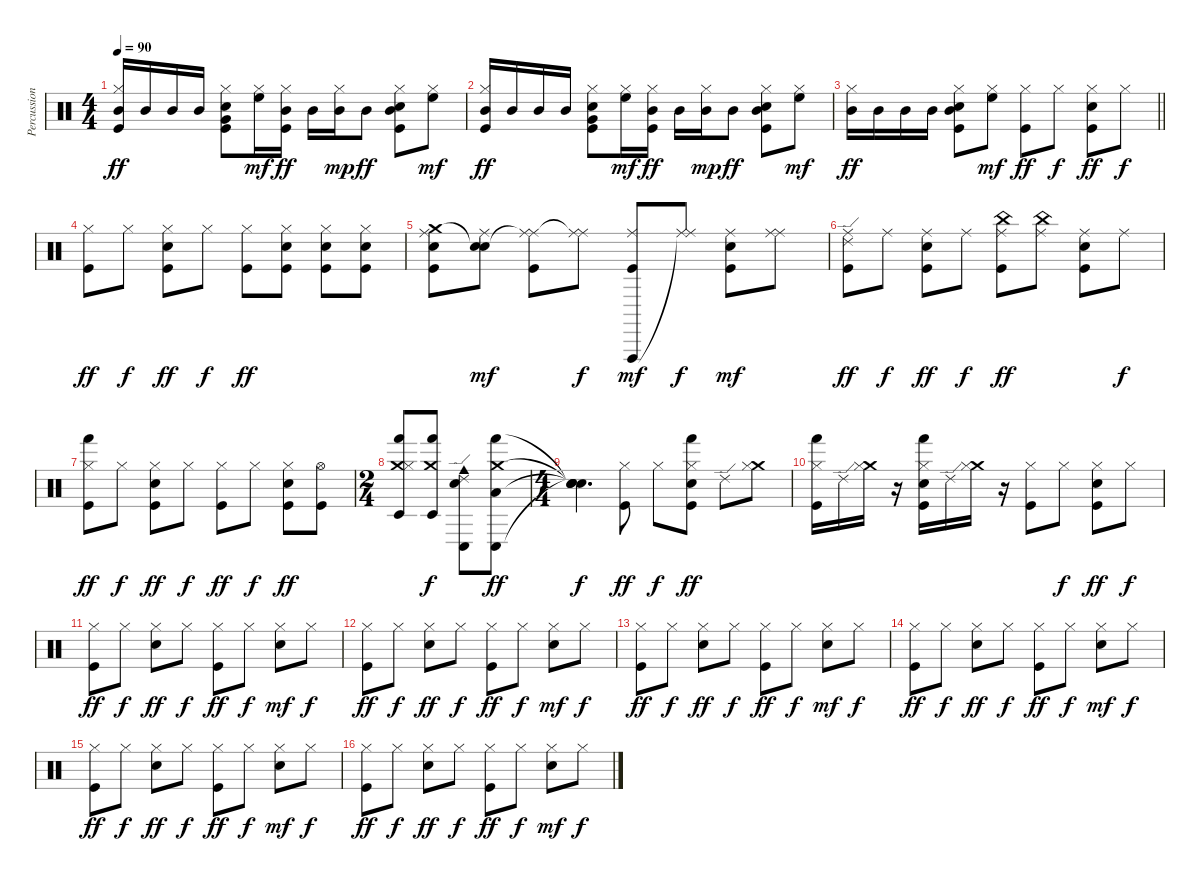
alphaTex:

\track ("Percussion" "Percussion") {instrument percussion}
\staff {score}
\articulation defaults
\ts (4 4)
\tempo 90
\clef neutral
\ks c
("Mid Tom (hit)" "Hi-Hat (closed)" "Kick (hit)").16{dy ff} "Mid Tom (hit)".16 "Mid Tom (hit)".16 "Mid Tom (hit)".16 ("Very Low Tom (hit)" "Hi-Hat (closed)" "Snare (hit) 2" "Kick (hit)").8 ("High Floor Tom (hit)" "Hi-Hat (closed)").16{dy mf} ("Mid Tom (hit)" "Hi-Hat (closed)" "Kick (hit)").16{dy ff} "Mid Tom (hit)".16 ("Mid Tom (hit)" "Hi-Hat (closed)").16{dy mp} "Mid Tom (hit)".8{dy ff} ("Mid Tom (hit)" "Hi-Hat (closed)" "Snare (hit) 2" "Kick (hit)").8 ("High Floor Tom (hit)" "Hi-Hat (closed)").8{dy mf} |
("Mid Tom (hit)" "Hi-Hat (closed)" "Kick (hit)").16{dy ff} "Mid Tom (hit)".16 "Mid Tom (hit)".16 "Mid Tom (hit)".16 ("Very Low Tom (hit)" "Hi-Hat (closed)" "Snare (hit) 2" "Kick (hit)").8 ("High Floor Tom (hit)" "Hi-Hat (closed)").16{dy mf} ("Mid Tom (hit)" "Hi-Hat (closed)" "Kick (hit)").16{dy ff} "Mid Tom (hit)".16 ("Mid Tom (hit)" "Hi-Hat (closed)").16{dy mp} "Mid Tom (hit)".8{dy ff} ("Mid Tom (hit)" "Hi-Hat (closed)" "Snare (hit) 2" "Kick (hit)").8 ("High Floor Tom (hit)" "Hi-Hat (closed)").8{dy mf} |
\barLineRight lightlight
("Mid Tom (hit)" "Hi-Hat (closed)").16{dy ff} "Mid Tom (hit)".16 "Mid Tom (hit)".16 "Mid Tom (hit)".16 ("Mid Tom (hit)" "Hi-Hat (closed)" "Snare (hit) 2" "Kick (hit)").8 ("High Floor Tom (hit)" "Hi-Hat (closed)").8{dy mf} ("Hi-Hat (closed)" "Kick (hit)").8{dy ff} "Hi-Hat (closed)".8{dy f} ("Hi-Hat (closed)" "Snare (hit) 2" "Kick (hit)").8{dy ff} "Hi-Hat (closed)".8{dy f} |
("Hi-Hat (closed)" "Kick (hit)").8{dy ff} "Hi-Hat (closed)".8{dy f} ("Hi-Hat (closed)" "Snare (hit) 2" "Kick (hit)").8{dy ff} "Hi-Hat (closed)".8{dy f} ("Hi-Hat (closed)" "Kick (hit)").8{dy ff} ("Hi-Hat (closed)" "Snare (hit) 2" "Kick (hit)").8 ("Hi-Hat (closed)" "Snare (hit) 2" "Kick (hit)").8 ("Hi-Hat (closed)" "Snare (hit) 2" "Kick (hit)").8 |
("Crash medium (hit)" "Ride (middle)" "Snare (hit) 2" "Kick (hit)").8 ("Hand Clap (hit)"{t} "Ride (middle)" "Hand Clap (hit)").8{dy mf} ("Ride (middle)"{t} "Ride (middle)" "Kick (hit)").8 ("Ride (middle)"{t} "Ride (middle)").8{dy f} ("Vibraslap (hit)" "Ride (middle)" "Kick (hit)").8{dy mf} ("Ride (middle)"{t} "Ride (middle)").8{dy f} ("Ride (middle)" "Snare (hit) 2" "Kick (hit)").8{dy mf} ("Ride (middle)" "Ride (middle)").8 |
("Ride (edge) 2" "Ride (middle)" "Kick (hit)").8{dy ff} "Ride (middle)".8{dy f} ("Ride (middle)" "Snare (hit) 2" "Kick (hit)").8{dy ff} "Ride (middle)".8{dy f} ("China (hit)" "Ride (middle)" "Kick (hit)").8{dy ff} ("China (hit)" "Ride (middle)").8 ("Ride (middle)" "Snare (hit) 2" "Kick (hit)").8 "Ride (middle)".8{dy f} |
("Hand (hit)" "Hi-Hat (closed)" "Kick (hit)").8{dy ff} "Hi-Hat (closed)".8{dy f} ("Hi-Hat (closed)" "Snare (hit) 2" "Kick (hit)").8{dy ff} "Hi-Hat (closed)".8{dy f} ("Hi-Hat (closed)" "Kick (hit)").8{dy ff} "Hi-Hat (closed)".8{dy f} ("Hi-Hat (closed)" "Snare (hit) 2" "Kick (hit)").8{dy ff} ("Hi-Hat (open)" "Kick (hit)").8 |
\ts (2 4)
("Timbale low (hit)" "Hand (hit)" "Crash medium (hit)" "Hi-Hat (closed)").8 ("Timbale low (hit)" "Hand (hit)" "Crash medium (hit)").8{dy f} ("Conga low (hit)" "Ride (edge) 2" "Cowbell medium (hit)" "Snare (hit) 2").8 ("Conga low (hit)" "Hand (hit)" "Crash medium (hit)" "Low Tom (hit)").8{dy ff} |
\ts (4 4)
("Snare (hit)"{t} "Snare (hit)"{t} "Snare (hit)"{t} "Snare (hit)"{t}).4{d dy f} ("Hi-Hat (closed)" "Kick (hit)").8{dy ff} "Hi-Hat (closed)".8{dy f} ("Hand (hit)" "Hi-Hat (closed)" "Snare (hit) 2" "Kick (hit)").8{dy ff} "Ride (edge) 2".8 ("Crash medium (hit)" "Hi-Hat (closed)").8 |
("Hand (hit)" "Hi-Hat (closed)" "Kick (hit)").16 "Ride (edge) 2".16 ("Crash medium (hit)" "Hi-Hat (closed)").16 r.16 ("Hand (hit)" "Hi-Hat (closed)" "Snare (hit) 2" "Kick (hit)").16 "Ride (edge) 2".16 ("Crash medium (hit)" "Hi-Hat (closed)").16 r.16 ("Hi-Hat (closed)" "Kick (hit)").8 "Hi-Hat (closed)".8{dy f} ("Hi-Hat (closed)" "Snare (hit) 2" "Kick (hit)").8{dy ff} "Hi-Hat (closed)".8{dy f} |
("Hi-Hat (closed)" "Kick (hit)").8{dy ff} "Hi-Hat (closed)".8{dy f} ("Hi-Hat (closed)" "Snare (hit) 2").8{dy ff} "Hi-Hat (closed)".8{dy f} ("Hi-Hat (closed)" "Kick (hit)").8{dy ff} "Hi-Hat (closed)".8{dy f} ("Hi-Hat (closed)" "Snare (hit) 2").8{dy mf} "Hi-Hat (closed)".8{dy f} |
("Hi-Hat (closed)" "Kick (hit)").8{dy ff} "Hi-Hat (closed)".8{dy f} ("Hi-Hat (closed)" "Snare (hit) 2").8{dy ff} "Hi-Hat (closed)".8{dy f} ("Hi-Hat (closed)" "Kick (hit)").8{dy ff} "Hi-Hat (closed)".8{dy f} ("Hi-Hat (closed)" "Snare (hit) 2").8{dy mf} "Hi-Hat (closed)".8{dy f} |
("Hi-Hat (closed)" "Kick (hit)").8{dy ff} "Hi-Hat (closed)".8{dy f} ("Hi-Hat (closed)" "Snare (hit) 2").8{dy ff} "Hi-Hat (closed)".8{dy f} ("Hi-Hat (closed)" "Kick (hit)").8{dy ff} "Hi-Hat (closed)".8{dy f} ("Hi-Hat (closed)" "Snare (hit) 2").8{dy mf} "Hi-Hat (closed)".8{dy f} |
("Hi-Hat (closed)" "Kick (hit)").8{dy ff} "Hi-Hat (closed)".8{dy f} ("Hi-Hat (closed)" "Snare (hit) 2").8{dy ff} "Hi-Hat (closed)".8{dy f} ("Hi-Hat (closed)" "Kick (hit)").8{dy ff} "Hi-Hat (closed)".8{dy f} ("Hi-Hat (closed)" "Snare (hit) 2").8{dy mf} "Hi-Hat (closed)".8{dy f} |
("Hi-Hat (closed)" "Kick (hit)").8{dy ff} "Hi-Hat (closed)".8{dy f} ("Hi-Hat (closed)" "Snare (hit) 2").8{dy ff} "Hi-Hat (closed)".8{dy f} ("Hi-Hat (closed)" "Kick (hit)").8{dy ff} "Hi-Hat (closed)".8{dy f} ("Hi-Hat (closed)" "Snare (hit) 2").8{dy mf} "Hi-Hat (closed)".8{dy f} |
("Hi-Hat (closed)" "Kick (hit)").8{dy ff} "Hi-Hat (closed)".8{dy f} ("Hi-Hat (closed)" "Snare (hit) 2").8{dy ff} "Hi-Hat (closed)".8{dy f} ("Hi-Hat (closed)" "Kick (hit)").8{dy ff} "Hi-Hat (closed)".8{dy f} ("Hi-Hat (closed)" "Snare (hit) 2").8{dy mf} "Hi-Hat (closed)".8{dy f}
